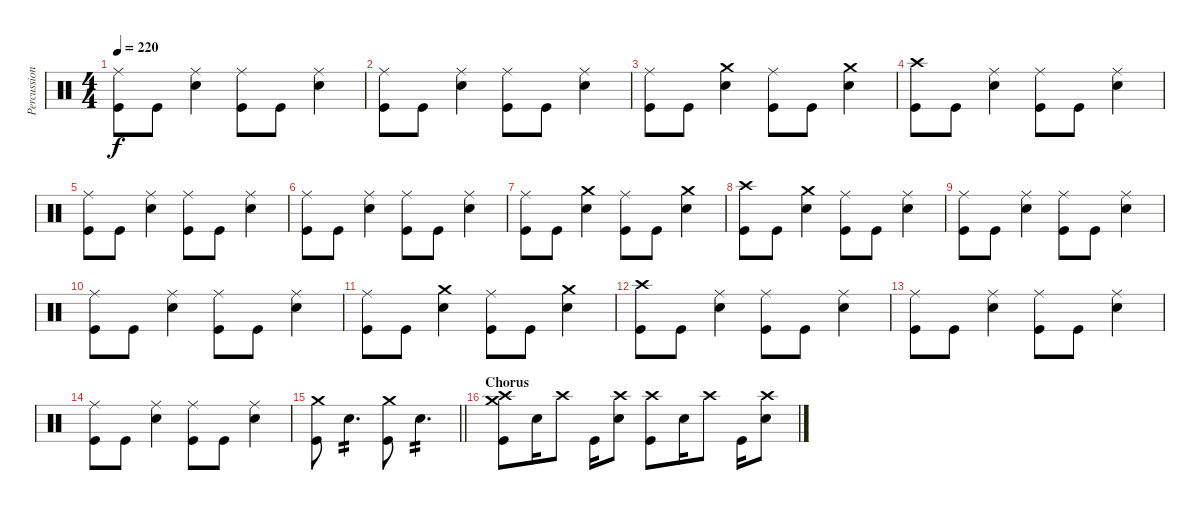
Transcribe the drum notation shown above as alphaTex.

\track ("Percussion" "Percussion") {instrument percussion}
\staff {score}
\articulation defaults
\ts (4 4)
\tempo 220
\clef neutral
\ks c
("Ride (middle)" "Kick (hit)").8{dy f} "Kick (hit)".8 ("Ride (middle)" "Snare (hit) 2").4 ("Ride (middle)" "Kick (hit)").8 "Kick (hit)".8 ("Ride (middle)" "Snare (hit) 2").4 |
("Ride (middle)" "Kick (hit)").8 "Kick (hit)".8 ("Ride (middle)" "Snare (hit) 2").4 ("Ride (middle)" "Kick (hit)").8 "Kick (hit)".8 ("Ride (middle)" "Snare (hit) 2").4 |
("Ride (middle)" "Kick (hit)").8 "Kick (hit)".8 ("Crash medium (hit)" "Snare (hit) 2").4 ("Ride (middle)" "Kick (hit)").8 "Kick (hit)".8 ("Crash medium (hit)" "Snare (hit) 2").4 |
("Crash high (hit)" "Kick (hit)").8 "Kick (hit)".8 ("Ride (middle)" "Snare (hit) 2").4 ("Ride (middle)" "Kick (hit)").8 "Kick (hit)".8 ("Ride (middle)" "Snare (hit) 2").4 |
("Ride (middle)" "Kick (hit)").8 "Kick (hit)".8 ("Ride (middle)" "Snare (hit) 2").4 ("Ride (middle)" "Kick (hit)").8 "Kick (hit)".8 ("Ride (middle)" "Snare (hit) 2").4 |
("Ride (middle)" "Kick (hit)").8 "Kick (hit)".8 ("Ride (middle)" "Snare (hit) 2").4 ("Ride (middle)" "Kick (hit)").8 "Kick (hit)".8 ("Ride (middle)" "Snare (hit) 2").4 |
("Ride (middle)" "Kick (hit)").8 "Kick (hit)".8 ("Crash medium (hit)" "Snare (hit) 2").4 ("Ride (middle)" "Kick (hit)").8 "Kick (hit)".8 ("Crash medium (hit)" "Snare (hit) 2").4 |
("Crash high (hit)" "Kick (hit)").8 "Kick (hit)".8 ("Crash medium (hit)" "Snare (hit) 2").4 ("Ride (middle)" "Kick (hit)").8 "Kick (hit)".8 ("Ride (middle)" "Snare (hit) 2").4 |
("Ride (middle)" "Kick (hit)").8 "Kick (hit)".8 ("Ride (middle)" "Snare (hit) 2").4 ("Ride (middle)" "Kick (hit)").8 "Kick (hit)".8 ("Ride (middle)" "Snare (hit) 2").4 |
("Ride (middle)" "Kick (hit)").8 "Kick (hit)".8 ("Ride (middle)" "Snare (hit) 2").4 ("Ride (middle)" "Kick (hit)").8 "Kick (hit)".8 ("Ride (middle)" "Snare (hit) 2").4 |
("Ride (middle)" "Kick (hit)").8 "Kick (hit)".8 ("Crash medium (hit)" "Snare (hit) 2").4 ("Ride (middle)" "Kick (hit)").8 "Kick (hit)".8 ("Crash medium (hit)" "Snare (hit) 2").4 |
("Crash high (hit)" "Kick (hit)").8 "Kick (hit)".8 ("Ride (middle)" "Snare (hit) 2").4 ("Ride (middle)" "Kick (hit)").8 "Kick (hit)".8 ("Ride (middle)" "Snare (hit) 2").4 |
("Ride (middle)" "Kick (hit)").8 "Kick (hit)".8 ("Ride (middle)" "Snare (hit) 2").4 ("Ride (middle)" "Kick (hit)").8 "Kick (hit)".8 ("Ride (middle)" "Snare (hit) 2").4 |
("Ride (middle)" "Kick (hit)").8 "Kick (hit)".8 ("Ride (middle)" "Snare (hit) 2").4 ("Ride (middle)" "Kick (hit)").8 "Kick (hit)".8 ("Ride (middle)" "Snare (hit) 2").4 |
\barLineRight lightlight
("Crash medium (hit)" "Kick (hit)").8 "Snare (hit) 2".4{d tp 2} ("Crash medium (hit)" "Kick (hit)").8 "Snare (hit) 2".4{d tp 2} |
\section ("" "Chorus")
("Crash medium (hit)" "Kick (hit)" "Crash high (hit)").8 "Snare (hit) 2".16 "Crash high (hit)".8 "Kick (hit)".16 ("Snare (hit) 2" "Crash high (hit)").8 ("Kick (hit)" "Crash high (hit)").8 "Snare (hit) 2".16 "Crash high (hit)".8 "Kick (hit)".16 ("Snare (hit) 2" "Crash high (hit)").8
